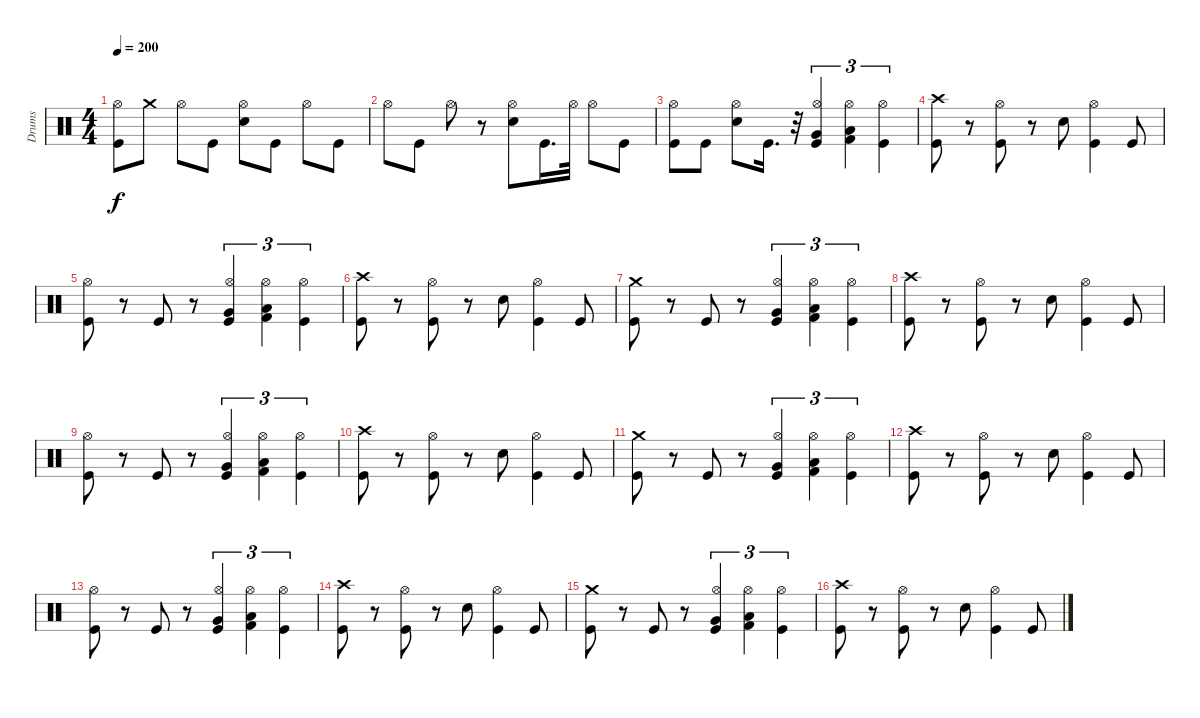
\track ("Drums" "Drums") {instrument percussion}
\staff {score}
\articulation defaults
\ts (4 4)
\tempo 200
\clef neutral
\ks c
("Kick (hit)" "Hi-Hat (open)").8{dy f} "Crash medium (hit)".8 "Hi-Hat (open)".8 "Kick (hit)".8 ("Electric Snare (hit)" "Hi-Hat (open)").8 "Kick (hit)".8 "Hi-Hat (open)".8 "Kick (hit)".8 |
"Hi-Hat (open)".8 "Kick (hit)".8 "Hi-Hat (open)".8 r.8 ("Electric Snare (hit)" "Hi-Hat (open)").8 "Kick (hit)".16{d} "Hi-Hat (open)".32 "Hi-Hat (open)".8 "Kick (hit)".8 |
("Kick (hit)" "Hi-Hat (open)").8 "Kick (hit)".8 ("Electric Snare (hit)" "Hi-Hat (open)").8 "Kick (hit)".16{d} r.32 ("Kick (hit)" "Hi-Hat (open)" "Very Low Tom (hit)").4{tu (3 2)} ("Kick (hit) 2" "Hi-Hat (open)" "Low Floor Tom (hit)").4{tu (3 2)} ("Kick (hit)" "Hi-Hat (open)").4{tu (3 2)} |
("Kick (hit)" "Crash high (hit)").8 r.8 ("Kick (hit)" "Hi-Hat (open)").8 r.8 "Electric Snare (hit)".8 ("Kick (hit)" "Hi-Hat (open)").4 "Kick (hit)".8 |
("Kick (hit)" "Hi-Hat (open)").8 r.8 "Kick (hit)".8 r.8 ("Kick (hit)" "Hi-Hat (open)" "Very Low Tom (hit)").4{tu (3 2)} ("Kick (hit) 2" "Hi-Hat (open)" "Low Floor Tom (hit)").4{tu (3 2)} ("Kick (hit)" "Hi-Hat (open)").4{tu (3 2)} |
("Kick (hit)" "Crash high (hit)").8 r.8 ("Kick (hit)" "Hi-Hat (open)").8 r.8 "Electric Snare (hit)".8 ("Kick (hit)" "Hi-Hat (open)").4 "Kick (hit)".8 |
("Kick (hit)" "Crash medium (hit)").8 r.8 "Kick (hit)".8 r.8 ("Kick (hit)" "Hi-Hat (open)" "Very Low Tom (hit)").4{tu (3 2)} ("Kick (hit) 2" "Hi-Hat (open)" "Low Floor Tom (hit)").4{tu (3 2)} ("Kick (hit)" "Hi-Hat (open)").4{tu (3 2)} |
("Kick (hit)" "Crash high (hit)").8 r.8 ("Kick (hit)" "Hi-Hat (open)").8 r.8 "Electric Snare (hit)".8 ("Kick (hit)" "Hi-Hat (open)").4 "Kick (hit)".8 |
("Kick (hit)" "Hi-Hat (open)").8 r.8 "Kick (hit)".8 r.8 ("Kick (hit)" "Hi-Hat (open)" "Very Low Tom (hit)").4{tu (3 2)} ("Kick (hit) 2" "Hi-Hat (open)" "Low Floor Tom (hit)").4{tu (3 2)} ("Kick (hit)" "Hi-Hat (open)").4{tu (3 2)} |
("Kick (hit)" "Crash high (hit)").8 r.8 ("Kick (hit)" "Hi-Hat (open)").8 r.8 "Electric Snare (hit)".8 ("Kick (hit)" "Hi-Hat (open)").4 "Kick (hit)".8 |
("Kick (hit)" "Crash medium (hit)").8 r.8 "Kick (hit)".8 r.8 ("Kick (hit)" "Hi-Hat (open)" "Very Low Tom (hit)").4{tu (3 2)} ("Kick (hit) 2" "Hi-Hat (open)" "Low Floor Tom (hit)").4{tu (3 2)} ("Kick (hit)" "Hi-Hat (open)").4{tu (3 2)} |
("Kick (hit)" "Crash high (hit)").8 r.8 ("Kick (hit)" "Hi-Hat (open)").8 r.8 "Electric Snare (hit)".8 ("Kick (hit)" "Hi-Hat (open)").4 "Kick (hit)".8 |
("Kick (hit)" "Hi-Hat (open)").8 r.8 "Kick (hit)".8 r.8 ("Kick (hit)" "Hi-Hat (open)" "Very Low Tom (hit)").4{tu (3 2)} ("Kick (hit) 2" "Hi-Hat (open)" "Low Floor Tom (hit)").4{tu (3 2)} ("Kick (hit)" "Hi-Hat (open)").4{tu (3 2)} |
("Kick (hit)" "Crash high (hit)").8 r.8 ("Kick (hit)" "Hi-Hat (open)").8 r.8 "Electric Snare (hit)".8 ("Kick (hit)" "Hi-Hat (open)").4 "Kick (hit)".8 |
("Kick (hit)" "Crash medium (hit)").8 r.8 "Kick (hit)".8 r.8 ("Kick (hit)" "Hi-Hat (open)" "Very Low Tom (hit)").4{tu (3 2)} ("Kick (hit) 2" "Hi-Hat (open)" "Low Floor Tom (hit)").4{tu (3 2)} ("Kick (hit)" "Hi-Hat (open)").4{tu (3 2)} |
("Kick (hit)" "Crash high (hit)").8 r.8 ("Kick (hit)" "Hi-Hat (open)").8 r.8 "Electric Snare (hit)".8 ("Kick (hit)" "Hi-Hat (open)").4 "Kick (hit)".8
